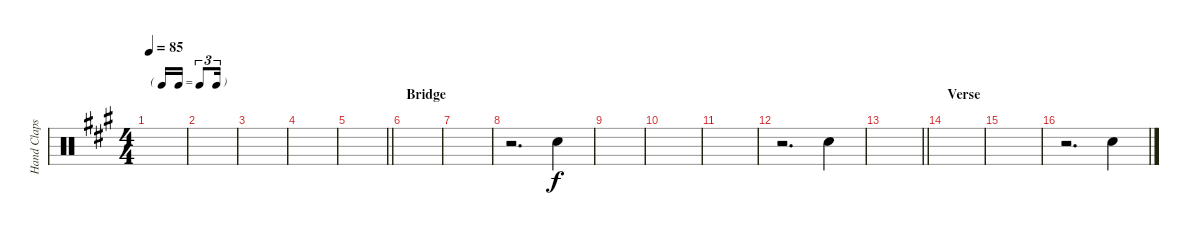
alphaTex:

\track ("Hand Claps" "Hand Claps") {instrument percussion}
\staff {score}
\articulation defaults
\ts (4 4)
\tf triplet16th
\tempo 85
\clef neutral
\ks a
|
|
|
|
\barLineRight lightlight
|
\section ("" "Bridge")
|
|
r.2{d} "Hand Clap (hit)".4 |
|
|
|
r.2{d} "Hand Clap (hit)".4 |
\barLineRight lightlight
|
\section ("" "Verse")
|
|
r.2{d} "Hand Clap (hit)".4
